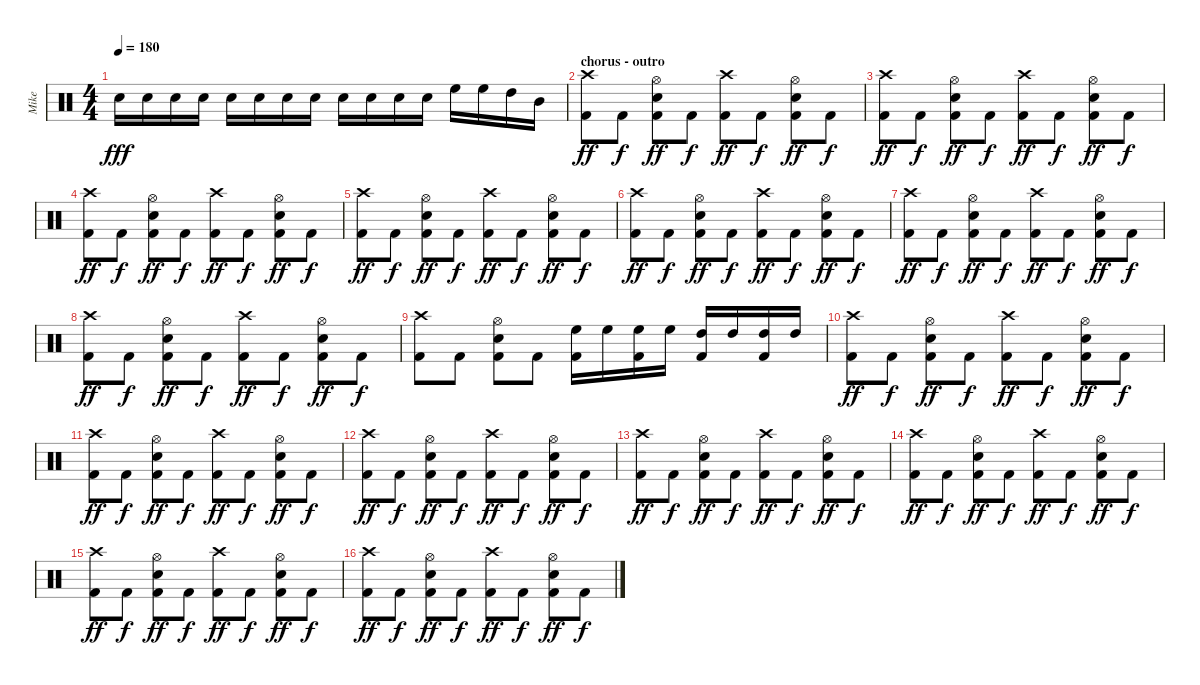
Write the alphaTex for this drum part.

\track ("Mike" "Mike") {instrument percussion}
\staff {score}
\articulation defaults
\ts (4 4)
\tempo 180
\clef neutral
\ks c "Snare (hit) 2".16{dy fff} "Snare (hit) 2".16 "Snare (hit) 2".16 "Snare (hit) 2".16 "Snare (hit) 2".16 "Snare (hit) 2".16 "Snare (hit) 2".16 "Snare (hit) 2".16 "Snare (hit) 2".16 "Snare (hit) 2".16 "Snare (hit) 2".16 "Snare (hit) 2".16 "High Floor Tom (hit)".16 "High Floor Tom (hit)".16 "High Tom (hit)".16 "Mid Tom (hit)".16
|
\section ("" "chorus - outro")
("Crash high (hit)" "Kick (hit) 2").8{dy ff} "Kick (hit) 2".8{dy f} ("Hi-Hat (open)" "Snare (hit) 2" "Kick (hit) 2").8{dy ff} "Kick (hit) 2".8{dy f} ("Crash high (hit)" "Kick (hit) 2").8{dy ff} "Kick (hit) 2".8{dy f} ("Hi-Hat (open)" "Snare (hit) 2" "Kick (hit) 2").8{dy ff} "Kick (hit) 2".8{dy f} |
("Crash high (hit)" "Kick (hit) 2").8{dy ff} "Kick (hit) 2".8{dy f} ("Hi-Hat (open)" "Snare (hit) 2" "Kick (hit) 2").8{dy ff} "Kick (hit) 2".8{dy f} ("Crash high (hit)" "Kick (hit) 2").8{dy ff} "Kick (hit) 2".8{dy f} ("Hi-Hat (open)" "Snare (hit) 2" "Kick (hit) 2").8{dy ff} "Kick (hit) 2".8{dy f} |
("Crash high (hit)" "Kick (hit) 2").8{dy ff} "Kick (hit) 2".8{dy f} ("Hi-Hat (open)" "Snare (hit) 2" "Kick (hit) 2").8{dy ff} "Kick (hit) 2".8{dy f} ("Crash high (hit)" "Kick (hit) 2").8{dy ff} "Kick (hit) 2".8{dy f} ("Hi-Hat (open)" "Snare (hit) 2" "Kick (hit) 2").8{dy ff} "Kick (hit) 2".8{dy f} |
("Crash high (hit)" "Kick (hit) 2").8{dy ff} "Kick (hit) 2".8{dy f} ("Hi-Hat (open)" "Snare (hit) 2" "Kick (hit) 2").8{dy ff} "Kick (hit) 2".8{dy f} ("Crash high (hit)" "Kick (hit) 2").8{dy ff} "Kick (hit) 2".8{dy f} ("Hi-Hat (open)" "Snare (hit) 2" "Kick (hit) 2").8{dy ff} "Kick (hit) 2".8{dy f} |
("Crash high (hit)" "Kick (hit) 2").8{dy ff} "Kick (hit) 2".8{dy f} ("Hi-Hat (open)" "Snare (hit) 2" "Kick (hit) 2").8{dy ff} "Kick (hit) 2".8{dy f} ("Crash high (hit)" "Kick (hit) 2").8{dy ff} "Kick (hit) 2".8{dy f} ("Hi-Hat (open)" "Snare (hit) 2" "Kick (hit) 2").8{dy ff} "Kick (hit) 2".8{dy f} |
("Crash high (hit)" "Kick (hit) 2").8{dy ff} "Kick (hit) 2".8{dy f} ("Hi-Hat (open)" "Snare (hit) 2" "Kick (hit) 2").8{dy ff} "Kick (hit) 2".8{dy f} ("Crash high (hit)" "Kick (hit) 2").8{dy ff} "Kick (hit) 2".8{dy f} ("Hi-Hat (open)" "Snare (hit) 2" "Kick (hit) 2").8{dy ff} "Kick (hit) 2".8{dy f} |
("Crash high (hit)" "Kick (hit) 2").8{dy ff} "Kick (hit) 2".8{dy f} ("Hi-Hat (open)" "Snare (hit) 2" "Kick (hit) 2").8{dy ff} "Kick (hit) 2".8{dy f} ("Crash high (hit)" "Kick (hit) 2").8{dy ff} "Kick (hit) 2".8{dy f} ("Hi-Hat (open)" "Snare (hit) 2" "Kick (hit) 2").8{dy ff} "Kick (hit) 2".8{dy f} |
("Crash high (hit)" "Kick (hit) 2").8 "Kick (hit) 2".8 ("Hi-Hat (open)" "Snare (hit) 2" "Kick (hit) 2").8 "Kick (hit) 2".8 ("High Floor Tom (hit)" "Kick (hit) 2").16 "High Floor Tom (hit)".16 ("High Floor Tom (hit)" "Kick (hit) 2").16 "High Floor Tom (hit)".16 ("High Tom (hit)" "Kick (hit) 2").16 "High Tom (hit)".16 ("High Tom (hit)" "Kick (hit) 2").16 "High Tom (hit)".16 |
("Crash high (hit)" "Kick (hit) 2").8{dy ff} "Kick (hit) 2".8{dy f} ("Hi-Hat (open)" "Snare (hit) 2" "Kick (hit) 2").8{dy ff} "Kick (hit) 2".8{dy f} ("Crash high (hit)" "Kick (hit) 2").8{dy ff} "Kick (hit) 2".8{dy f} ("Hi-Hat (open)" "Snare (hit) 2" "Kick (hit) 2").8{dy ff} "Kick (hit) 2".8{dy f} |
("Crash high (hit)" "Kick (hit) 2").8{dy ff} "Kick (hit) 2".8{dy f} ("Hi-Hat (open)" "Snare (hit) 2" "Kick (hit) 2").8{dy ff} "Kick (hit) 2".8{dy f} ("Crash high (hit)" "Kick (hit) 2").8{dy ff} "Kick (hit) 2".8{dy f} ("Hi-Hat (open)" "Snare (hit) 2" "Kick (hit) 2").8{dy ff} "Kick (hit) 2".8{dy f} |
("Crash high (hit)" "Kick (hit) 2").8{dy ff} "Kick (hit) 2".8{dy f} ("Hi-Hat (open)" "Snare (hit) 2" "Kick (hit) 2").8{dy ff} "Kick (hit) 2".8{dy f} ("Crash high (hit)" "Kick (hit) 2").8{dy ff} "Kick (hit) 2".8{dy f} ("Hi-Hat (open)" "Snare (hit) 2" "Kick (hit) 2").8{dy ff} "Kick (hit) 2".8{dy f} |
("Crash high (hit)" "Kick (hit) 2").8{dy ff} "Kick (hit) 2".8{dy f} ("Hi-Hat (open)" "Snare (hit) 2" "Kick (hit) 2").8{dy ff} "Kick (hit) 2".8{dy f} ("Crash high (hit)" "Kick (hit) 2").8{dy ff} "Kick (hit) 2".8{dy f} ("Hi-Hat (open)" "Snare (hit) 2" "Kick (hit) 2").8{dy ff} "Kick (hit) 2".8{dy f} |
("Crash high (hit)" "Kick (hit) 2").8{dy ff} "Kick (hit) 2".8{dy f} ("Hi-Hat (open)" "Snare (hit) 2" "Kick (hit) 2").8{dy ff} "Kick (hit) 2".8{dy f} ("Crash high (hit)" "Kick (hit) 2").8{dy ff} "Kick (hit) 2".8{dy f} ("Hi-Hat (open)" "Snare (hit) 2" "Kick (hit) 2").8{dy ff} "Kick (hit) 2".8{dy f} |
("Crash high (hit)" "Kick (hit) 2").8{dy ff} "Kick (hit) 2".8{dy f} ("Hi-Hat (open)" "Snare (hit) 2" "Kick (hit) 2").8{dy ff} "Kick (hit) 2".8{dy f} ("Crash high (hit)" "Kick (hit) 2").8{dy ff} "Kick (hit) 2".8{dy f} ("Hi-Hat (open)" "Snare (hit) 2" "Kick (hit) 2").8{dy ff} "Kick (hit) 2".8{dy f} |
("Crash high (hit)" "Kick (hit) 2").8{dy ff} "Kick (hit) 2".8{dy f} ("Hi-Hat (open)" "Snare (hit) 2" "Kick (hit) 2").8{dy ff} "Kick (hit) 2".8{dy f} ("Crash high (hit)" "Kick (hit) 2").8{dy ff} "Kick (hit) 2".8{dy f} ("Hi-Hat (open)" "Snare (hit) 2" "Kick (hit) 2").8{dy ff} "Kick (hit) 2".8{dy f}
